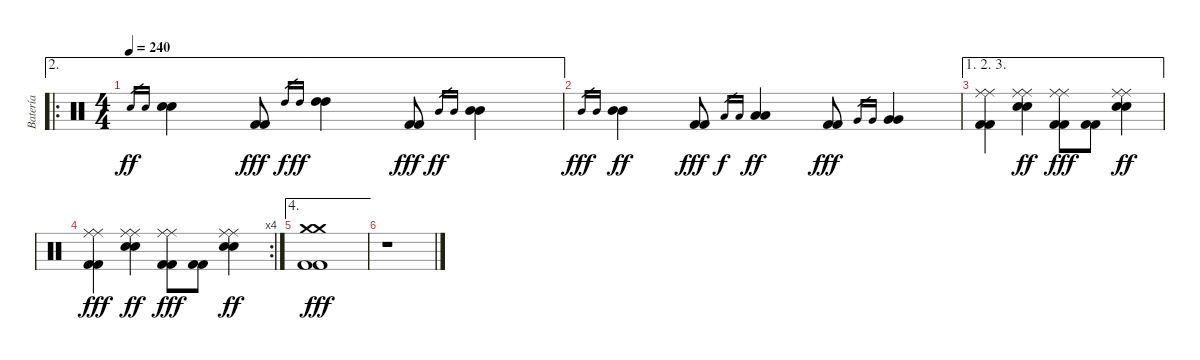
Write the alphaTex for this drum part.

\track ("Batería" "Batería") {instrument percussion}
\staff {score}
\articulation defaults
\ae 2
\ro
\ts (4 4)
\tempo 240
\clef neutral
\ks c "Electric Snare (hit)".16{gr dy ff} "Electric Snare (hit)".16{gr}
("Electric Snare (hit)" "Electric Snare (hit)").4 ("Kick (hit) 2" "Kick (hit) 2").8{dy fff} "High Tom (hit)".16{gr dy f} "High Tom (hit)".16{gr dy ff} ("High Tom (hit)" "High Tom (hit)").4 ("Kick (hit) 2" "Kick (hit) 2").8{dy fff} "Mid Tom (hit)".16{gr dy ff} "Mid Tom (hit)".16{gr} ("Mid Tom (hit)" "Mid Tom (hit)").4 |
"Mid Tom (hit)".16{gr dy fff} "Mid Tom (hit)".16{gr} ("Mid Tom (hit)" "Mid Tom (hit)").4{dy ff} ("Kick (hit) 2" "Kick (hit) 2").8{dy fff} "Low Tom (hit)".16{gr dy f} "Low Tom (hit)".16{gr} ("Low Tom (hit)" "Low Tom (hit)").4{dy ff} ("Kick (hit) 2" "Kick (hit) 2").8{dy fff} "Very Low Tom (hit)".16{gr} "Very Low Tom (hit)".16{gr} ("Very Low Tom (hit)" "Very Low Tom (hit)").4 |
\ae (1 2 3)
("Ride (middle)" "Ride (middle)" "Kick (hit) 2" "Kick (hit) 2").4 ("Ride (middle)" "Ride (middle)" "Electric Snare (hit)" "Electric Snare (hit)").4{dy ff} ("Ride (middle)" "Ride (middle)" "Kick (hit) 2" "Kick (hit) 2").8{dy fff} ("Kick (hit) 2" "Kick (hit) 2").8 ("Ride (middle)" "Ride (middle)" "Electric Snare (hit)" "Electric Snare (hit)").4{dy ff} |
\rc 4
("Ride (middle)" "Ride (middle)" "Kick (hit) 2" "Kick (hit) 2").4{dy fff} ("Ride (middle)" "Ride (middle)" "Electric Snare (hit)" "Electric Snare (hit)").4{dy ff} ("Ride (middle)" "Ride (middle)" "Kick (hit) 2" "Kick (hit) 2").8{dy fff} ("Kick (hit) 2" "Kick (hit) 2").8 ("Ride (middle)" "Ride (middle)" "Electric Snare (hit)" "Electric Snare (hit)").4{dy ff} |
\ae 4
("Crash medium (hit)" "Crash medium (hit)" "Kick (hit) 2" "Kick (hit) 2").1{dy fff} |
r.1
